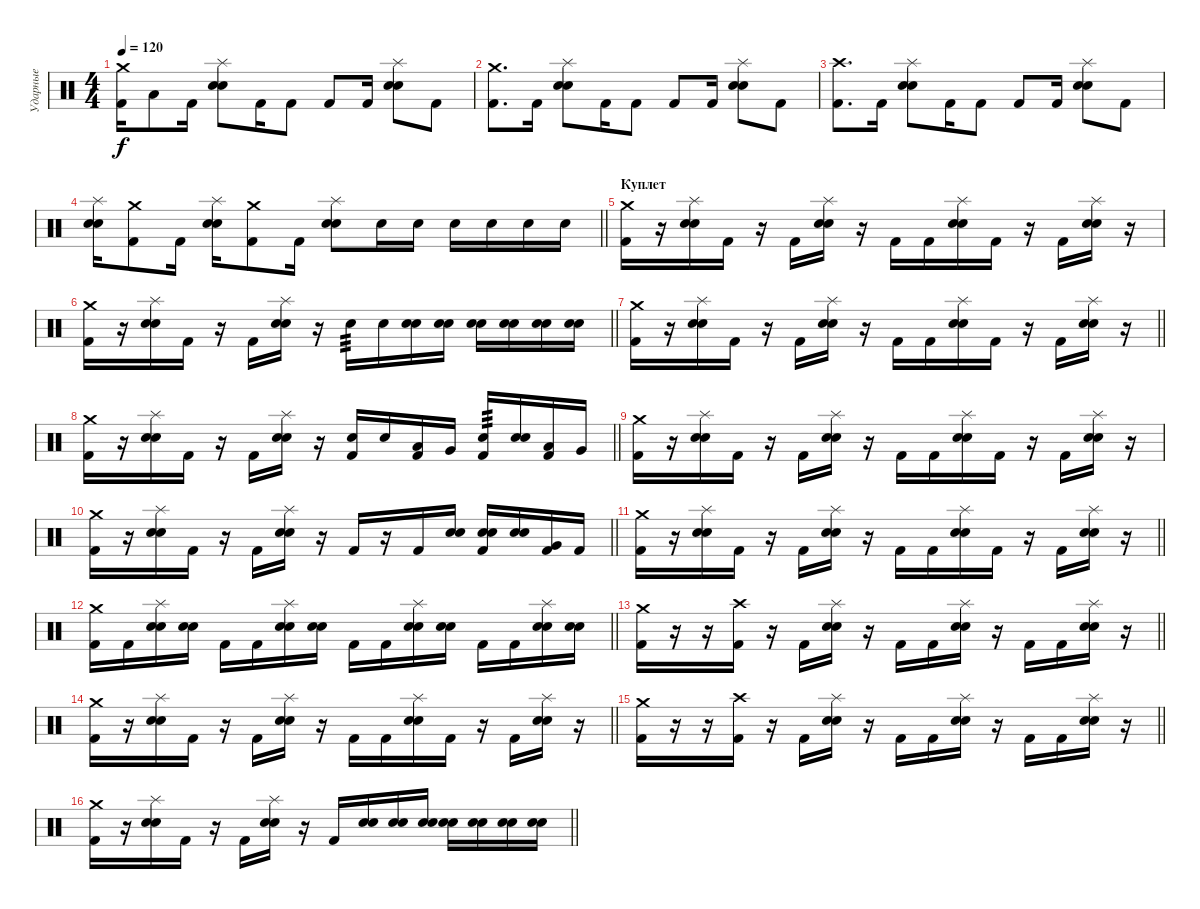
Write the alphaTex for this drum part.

\track ("Ударные" "Ударные") {instrument percussion}
\staff {score}
\articulation defaults
\ts (4 4)
\tempo 120
\clef neutral
\ks c
("Crash medium (hit)" "Kick (hit) 2").16{dy f} "Low Tom (hit)".8 "Kick (hit) 2".16 ("Splash (hit)" "Electric Snare (hit)" "Snare (hit) 2").8 "Kick (hit) 2".16 "Kick (hit) 2".8 "Kick (hit) 2".8 "Kick (hit) 2".16 ("Splash (hit)" "Electric Snare (hit)" "Snare (hit) 2").8 "Kick (hit) 2".8 |
("Crash medium (hit)" "Kick (hit) 2").8{d} "Kick (hit) 2".16 ("Splash (hit)" "Electric Snare (hit)" "Snare (hit) 2").8 "Kick (hit) 2".16 "Kick (hit) 2".8 "Kick (hit) 2".8 "Kick (hit) 2".16 ("Splash (hit)" "Electric Snare (hit)" "Snare (hit) 2").8 "Kick (hit) 2".8 |
("Crash high (hit)" "Kick (hit) 2").8{d} "Kick (hit) 2".16 ("Splash (hit)" "Electric Snare (hit)" "Snare (hit) 2").8 "Kick (hit) 2".16 "Kick (hit) 2".8 "Kick (hit) 2".8 "Kick (hit) 2".16 ("Splash (hit)" "Electric Snare (hit)" "Snare (hit) 2").8 "Kick (hit) 2".8 |
\barLineRight lightlight
("Splash (hit)" "Electric Snare (hit)" "Snare (hit) 2").16 ("Crash medium (hit)" "Kick (hit) 2").8 "Kick (hit) 2".16 ("Splash (hit)" "Electric Snare (hit)" "Snare (hit) 2").16 ("Crash medium (hit)" "Kick (hit) 2").8 "Kick (hit) 2".16 ("Splash (hit)" "Electric Snare (hit)" "Snare (hit) 2").8 "Electric Snare (hit)".16 "Electric Snare (hit)".16 "Electric Snare (hit)".16 "Electric Snare (hit)".16 "Electric Snare (hit)".16 "Electric Snare (hit)".16 |
\section ("" "Куплет")
("Crash medium (hit)" "Kick (hit) 2").16 r.16 ("Splash (hit)" "Electric Snare (hit)" "Snare (hit) 2").16 "Kick (hit) 2".16 r.16 "Kick (hit) 2".16 ("Splash (hit)" "Electric Snare (hit)" "Snare (hit) 2").16 r.16 "Kick (hit) 2".16 "Kick (hit) 2".16 ("Splash (hit)" "Electric Snare (hit)" "Snare (hit) 2").16 "Kick (hit) 2".16 r.16 "Kick (hit) 2".16 ("Splash (hit)" "Electric Snare (hit)" "Snare (hit) 2").16 r.16 |
\barLineRight lightlight
("Crash medium (hit)" "Kick (hit) 2").16 r.16 ("Splash (hit)" "Electric Snare (hit)" "Snare (hit) 2").16 "Kick (hit) 2".16 r.16 "Kick (hit) 2".16 ("Splash (hit)" "Electric Snare (hit)" "Snare (hit) 2").16 r.16 "Electric Snare (hit)".16{tp 3} "Electric Snare (hit)".16 ("Electric Snare (hit)" "Snare (hit) 2").16 ("Electric Snare (hit)" "Snare (hit) 2").16 ("Electric Snare (hit)" "Snare (hit) 2").16 ("Electric Snare (hit)" "Snare (hit) 2").16 ("Electric Snare (hit)" "Snare (hit) 2").16 ("Electric Snare (hit)" "Snare (hit) 2").16 |
\barLineRight lightlight
("Crash medium (hit)" "Kick (hit) 2").16 r.16 ("Splash (hit)" "Electric Snare (hit)" "Snare (hit) 2").16 "Kick (hit) 2".16 r.16 "Kick (hit) 2".16 ("Splash (hit)" "Electric Snare (hit)" "Snare (hit) 2").16 r.16 "Kick (hit) 2".16 "Kick (hit) 2".16 ("Splash (hit)" "Electric Snare (hit)" "Snare (hit) 2").16 "Kick (hit) 2".16 r.16 "Kick (hit) 2".16 ("Splash (hit)" "Electric Snare (hit)" "Snare (hit) 2").16 r.16 |
\barLineRight lightlight
("Crash medium (hit)" "Kick (hit) 2").16 r.16 ("Splash (hit)" "Electric Snare (hit)" "Snare (hit) 2").16 "Kick (hit) 2".16 r.16 "Kick (hit) 2".16 ("Splash (hit)" "Electric Snare (hit)" "Snare (hit) 2").16 r.16 ("Electric Snare (hit)" "Kick (hit) 2").16 "Electric Snare (hit)".16 ("Low Tom (hit)" "Kick (hit) 2").16 "Very Low Tom (hit)".16 ("Electric Snare (hit)" "Kick (hit) 2").16{tp 3} ("Electric Snare (hit)" "Snare (hit) 2").16 ("Low Tom (hit)" "Kick (hit) 2").16 "Very Low Tom (hit)".16 |
("Crash medium (hit)" "Kick (hit) 2").16 r.16 ("Splash (hit)" "Electric Snare (hit)" "Snare (hit) 2").16 "Kick (hit) 2".16 r.16 "Kick (hit) 2".16 ("Splash (hit)" "Electric Snare (hit)" "Snare (hit) 2").16 r.16 "Kick (hit) 2".16 "Kick (hit) 2".16 ("Splash (hit)" "Electric Snare (hit)" "Snare (hit) 2").16 "Kick (hit) 2".16 r.16 "Kick (hit) 2".16 ("Splash (hit)" "Electric Snare (hit)" "Snare (hit) 2").16 r.16 |
\barLineRight lightlight
("Crash medium (hit)" "Kick (hit) 2").16 r.16 ("Splash (hit)" "Electric Snare (hit)" "Snare (hit) 2").16 "Kick (hit) 2".16 r.16 "Kick (hit) 2".16 ("Splash (hit)" "Electric Snare (hit)" "Snare (hit) 2").16 r.16 "Kick (hit) 2".16 r.16 "Kick (hit) 2".16 ("Electric Snare (hit)" "Snare (hit) 2").16 ("Electric Snare (hit)" "Snare (hit) 2" "Kick (hit) 2").16 ("Electric Snare (hit)" "Snare (hit) 2").16 ("Very Low Tom (hit)" "Kick (hit) 2").16 "Kick (hit) 2".16 |
\barLineRight lightlight
("Crash medium (hit)" "Kick (hit) 2").16 r.16 ("Splash (hit)" "Electric Snare (hit)" "Snare (hit) 2").16 "Kick (hit) 2".16 r.16 "Kick (hit) 2".16 ("Splash (hit)" "Electric Snare (hit)" "Snare (hit) 2").16 r.16 "Kick (hit) 2".16 "Kick (hit) 2".16 ("Splash (hit)" "Electric Snare (hit)" "Snare (hit) 2").16 "Kick (hit) 2".16 r.16 "Kick (hit) 2".16 ("Splash (hit)" "Electric Snare (hit)" "Snare (hit) 2").16 r.16 |
\barLineRight lightlight
("Crash medium (hit)" "Kick (hit) 2").16 "Kick (hit) 2".16 ("Splash (hit)" "Electric Snare (hit)" "Snare (hit) 2").16 ("Electric Snare (hit)" "Snare (hit) 2").16 "Kick (hit) 2".16 "Kick (hit) 2".16 ("Splash (hit)" "Electric Snare (hit)" "Snare (hit) 2").16 ("Electric Snare (hit)" "Snare (hit) 2").16 "Kick (hit) 2".16 "Kick (hit) 2".16 ("Splash (hit)" "Electric Snare (hit)" "Snare (hit) 2").16 ("Electric Snare (hit)" "Snare (hit) 2").16 "Kick (hit) 2".16 "Kick (hit) 2".16 ("Splash (hit)" "Electric Snare (hit)" "Snare (hit) 2").16 ("Electric Snare (hit)" "Snare (hit) 2").16 |
\barLineRight lightlight
("Crash medium (hit)" "Kick (hit) 2").16 r.16 r.16 ("Crash high (hit)" "Kick (hit) 2").16 r.16 "Kick (hit) 2".16 ("Splash (hit)" "Electric Snare (hit)" "Snare (hit) 2").16 r.16 "Kick (hit) 2".16 "Kick (hit) 2".16 ("Splash (hit)" "Electric Snare (hit)" "Snare (hit) 2").16 r.16 "Kick (hit) 2".16 "Kick (hit) 2".16 ("Splash (hit)" "Electric Snare (hit)" "Snare (hit) 2").16 r.16 |
\barLineRight lightlight
("Crash medium (hit)" "Kick (hit) 2").16 r.16 ("Splash (hit)" "Electric Snare (hit)" "Snare (hit) 2").16 "Kick (hit) 2".16 r.16 "Kick (hit) 2".16 ("Splash (hit)" "Electric Snare (hit)" "Snare (hit) 2").16 r.16 "Kick (hit) 2".16 "Kick (hit) 2".16 ("Splash (hit)" "Electric Snare (hit)" "Snare (hit) 2").16 "Kick (hit) 2".16 r.16 "Kick (hit) 2".16 ("Splash (hit)" "Electric Snare (hit)" "Snare (hit) 2").16 r.16 |
\barLineRight lightlight
("Crash medium (hit)" "Kick (hit) 2").16 r.16 r.16 ("Crash high (hit)" "Kick (hit) 2").16 r.16 "Kick (hit) 2".16 ("Splash (hit)" "Electric Snare (hit)" "Snare (hit) 2").16 r.16 "Kick (hit) 2".16 "Kick (hit) 2".16 ("Splash (hit)" "Electric Snare (hit)" "Snare (hit) 2").16 r.16 "Kick (hit) 2".16 "Kick (hit) 2".16 ("Splash (hit)" "Electric Snare (hit)" "Snare (hit) 2").16 r.16 |
\barLineRight lightlight
("Crash medium (hit)" "Kick (hit) 2").16 r.16 ("Splash (hit)" "Electric Snare (hit)" "Snare (hit) 2").16 "Kick (hit) 2".16 r.16 "Kick (hit) 2".16 ("Splash (hit)" "Electric Snare (hit)" "Snare (hit) 2").16 r.16 "Kick (hit) 2".16 ("Electric Snare (hit)" "Snare (hit) 2").16 ("Electric Snare (hit)" "Snare (hit) 2").16 ("Electric Snare (hit)" "Snare (hit) 2").16 ("Electric Snare (hit)" "Snare (hit) 2").16 ("Electric Snare (hit)" "Snare (hit) 2").16 ("Electric Snare (hit)" "Snare (hit) 2").16 ("Electric Snare (hit)" "Snare (hit) 2").16
